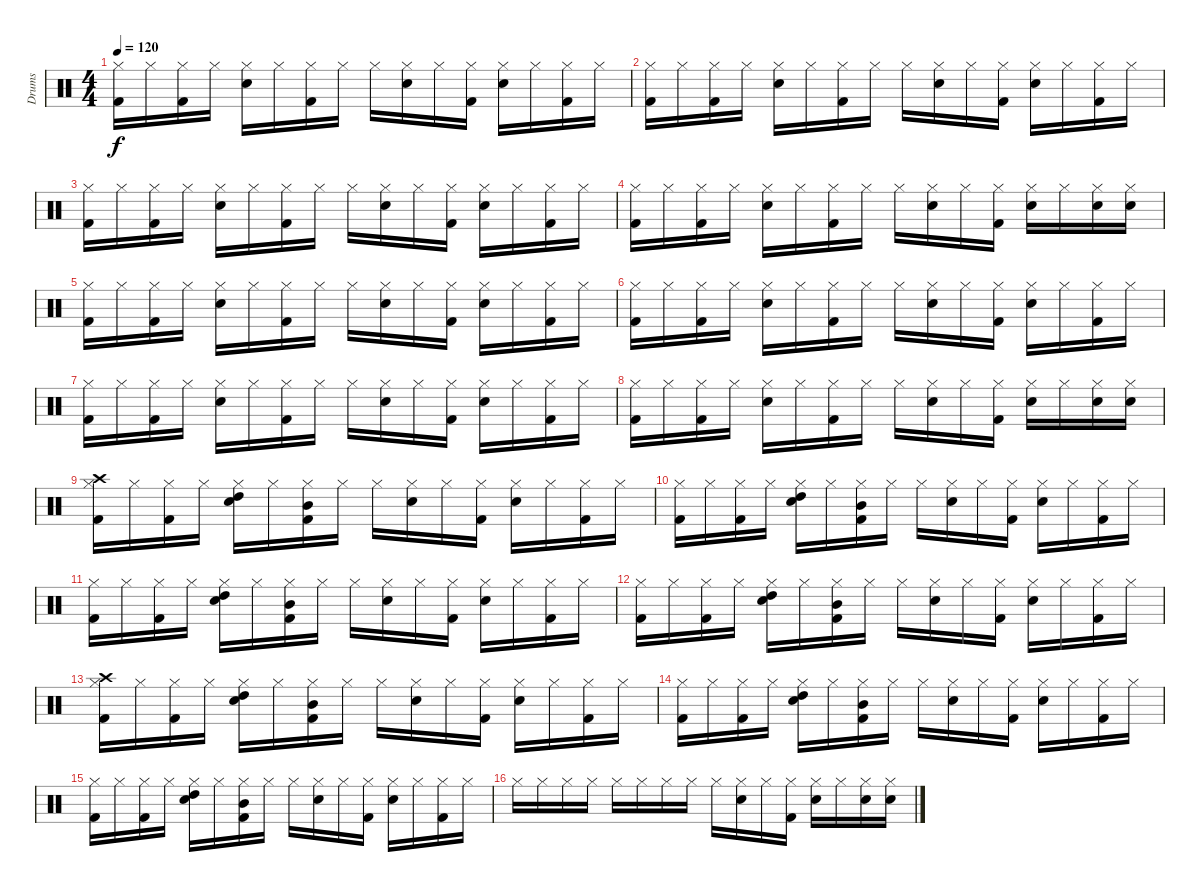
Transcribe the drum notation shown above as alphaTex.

\track ("Drums" "Drums") {instrument percussion}
\staff {score}
\articulation defaults
\ts (4 4)
\tempo 120
\clef neutral
\ks c
("Hi-Hat (closed)" "Kick (hit) 2").16{dy f} "Hi-Hat (closed)".16 ("Hi-Hat (closed)" "Kick (hit) 2").16 "Hi-Hat (closed)".16 ("Hi-Hat (closed)" "Electric Snare (hit)").16 "Hi-Hat (closed)".16 ("Hi-Hat (closed)" "Kick (hit) 2").16 "Hi-Hat (closed)".16 "Hi-Hat (closed)".16 ("Hi-Hat (closed)" "Electric Snare (hit)").16 "Hi-Hat (closed)".16 ("Hi-Hat (closed)" "Kick (hit) 2").16 ("Hi-Hat (closed)" "Electric Snare (hit)").16 "Hi-Hat (closed)".16 ("Hi-Hat (closed)" "Kick (hit) 2").16 "Hi-Hat (closed)".16 |
("Hi-Hat (closed)" "Kick (hit) 2").16 "Hi-Hat (closed)".16 ("Hi-Hat (closed)" "Kick (hit) 2").16 "Hi-Hat (closed)".16 ("Hi-Hat (closed)" "Electric Snare (hit)").16 "Hi-Hat (closed)".16 ("Hi-Hat (closed)" "Kick (hit) 2").16 "Hi-Hat (closed)".16 "Hi-Hat (closed)".16 ("Hi-Hat (closed)" "Electric Snare (hit)").16 "Hi-Hat (closed)".16 ("Hi-Hat (closed)" "Kick (hit) 2").16 ("Hi-Hat (closed)" "Electric Snare (hit)").16 "Hi-Hat (closed)".16 ("Hi-Hat (closed)" "Kick (hit) 2").16 "Hi-Hat (closed)".16 |
("Hi-Hat (closed)" "Kick (hit) 2").16 "Hi-Hat (closed)".16 ("Hi-Hat (closed)" "Kick (hit) 2").16 "Hi-Hat (closed)".16 ("Hi-Hat (closed)" "Electric Snare (hit)").16 "Hi-Hat (closed)".16 ("Hi-Hat (closed)" "Kick (hit) 2").16 "Hi-Hat (closed)".16 "Hi-Hat (closed)".16 ("Hi-Hat (closed)" "Electric Snare (hit)").16 "Hi-Hat (closed)".16 ("Hi-Hat (closed)" "Kick (hit) 2").16 ("Hi-Hat (closed)" "Electric Snare (hit)").16 "Hi-Hat (closed)".16 ("Hi-Hat (closed)" "Kick (hit) 2").16 "Hi-Hat (closed)".16 |
("Hi-Hat (closed)" "Kick (hit) 2").16 "Hi-Hat (closed)".16 ("Hi-Hat (closed)" "Kick (hit) 2").16 "Hi-Hat (closed)".16 ("Hi-Hat (closed)" "Electric Snare (hit)").16 "Hi-Hat (closed)".16 ("Hi-Hat (closed)" "Kick (hit) 2").16 "Hi-Hat (closed)".16 "Hi-Hat (closed)".16 ("Hi-Hat (closed)" "Electric Snare (hit)").16 "Hi-Hat (closed)".16 ("Hi-Hat (closed)" "Kick (hit) 2").16 ("Hi-Hat (closed)" "Electric Snare (hit)").16 "Hi-Hat (closed)".16 ("Hi-Hat (closed)" "Electric Snare (hit)").16 ("Hi-Hat (closed)" "Electric Snare (hit)").16 |
("Hi-Hat (closed)" "Kick (hit) 2").16 "Hi-Hat (closed)".16 ("Hi-Hat (closed)" "Kick (hit) 2").16 "Hi-Hat (closed)".16 ("Hi-Hat (closed)" "Electric Snare (hit)").16 "Hi-Hat (closed)".16 ("Hi-Hat (closed)" "Kick (hit) 2").16 "Hi-Hat (closed)".16 "Hi-Hat (closed)".16 ("Hi-Hat (closed)" "Electric Snare (hit)").16 "Hi-Hat (closed)".16 ("Hi-Hat (closed)" "Kick (hit) 2").16 ("Hi-Hat (closed)" "Electric Snare (hit)").16 "Hi-Hat (closed)".16 ("Hi-Hat (closed)" "Kick (hit) 2").16 "Hi-Hat (closed)".16 |
("Hi-Hat (closed)" "Kick (hit) 2").16 "Hi-Hat (closed)".16 ("Hi-Hat (closed)" "Kick (hit) 2").16 "Hi-Hat (closed)".16 ("Hi-Hat (closed)" "Electric Snare (hit)").16 "Hi-Hat (closed)".16 ("Hi-Hat (closed)" "Kick (hit) 2").16 "Hi-Hat (closed)".16 "Hi-Hat (closed)".16 ("Hi-Hat (closed)" "Electric Snare (hit)").16 "Hi-Hat (closed)".16 ("Hi-Hat (closed)" "Kick (hit) 2").16 ("Hi-Hat (closed)" "Electric Snare (hit)").16 "Hi-Hat (closed)".16 ("Hi-Hat (closed)" "Kick (hit) 2").16 "Hi-Hat (closed)".16 |
("Hi-Hat (closed)" "Kick (hit) 2").16 "Hi-Hat (closed)".16 ("Hi-Hat (closed)" "Kick (hit) 2").16 "Hi-Hat (closed)".16 ("Hi-Hat (closed)" "Electric Snare (hit)").16 "Hi-Hat (closed)".16 ("Hi-Hat (closed)" "Kick (hit) 2").16 "Hi-Hat (closed)".16 "Hi-Hat (closed)".16 ("Hi-Hat (closed)" "Electric Snare (hit)").16 "Hi-Hat (closed)".16 ("Hi-Hat (closed)" "Kick (hit) 2").16 ("Hi-Hat (closed)" "Electric Snare (hit)").16 "Hi-Hat (closed)".16 ("Hi-Hat (closed)" "Kick (hit) 2").16 "Hi-Hat (closed)".16 |
("Hi-Hat (closed)" "Kick (hit) 2").16 "Hi-Hat (closed)".16 ("Hi-Hat (closed)" "Kick (hit) 2").16 "Hi-Hat (closed)".16 ("Hi-Hat (closed)" "Electric Snare (hit)").16 "Hi-Hat (closed)".16 ("Hi-Hat (closed)" "Kick (hit) 2").16 "Hi-Hat (closed)".16 "Hi-Hat (closed)".16 ("Hi-Hat (closed)" "Electric Snare (hit)").16 "Hi-Hat (closed)".16 ("Hi-Hat (closed)" "Kick (hit) 2").16 ("Hi-Hat (closed)" "Electric Snare (hit)").16 "Hi-Hat (closed)".16 ("Hi-Hat (closed)" "Electric Snare (hit)").16 ("Hi-Hat (closed)" "Electric Snare (hit)").16 |
("Hi-Hat (closed)" "Crash high (hit)" "Kick (hit) 2").16 "Hi-Hat (closed)".16 ("Hi-Hat (closed)" "Kick (hit) 2").16 "Hi-Hat (closed)".16 ("Hi-Hat (closed)" "High Tom (hit)" "Electric Snare (hit)").16 "Hi-Hat (closed)".16 ("Hi-Hat (closed)" "Mid Tom (hit)" "Kick (hit) 2").16 "Hi-Hat (closed)".16 "Hi-Hat (closed)".16 ("Hi-Hat (closed)" "Electric Snare (hit)").16 "Hi-Hat (closed)".16 ("Hi-Hat (closed)" "Kick (hit) 2").16 ("Hi-Hat (closed)" "Electric Snare (hit)").16 "Hi-Hat (closed)".16 ("Hi-Hat (closed)" "Kick (hit) 2").16 "Hi-Hat (closed)".16 |
("Hi-Hat (closed)" "Kick (hit) 2").16 "Hi-Hat (closed)".16 ("Hi-Hat (closed)" "Kick (hit) 2").16 "Hi-Hat (closed)".16 ("Hi-Hat (closed)" "High Tom (hit)" "Electric Snare (hit)").16 "Hi-Hat (closed)".16 ("Hi-Hat (closed)" "Mid Tom (hit)" "Kick (hit) 2").16 "Hi-Hat (closed)".16 "Hi-Hat (closed)".16 ("Hi-Hat (closed)" "Electric Snare (hit)").16 "Hi-Hat (closed)".16 ("Hi-Hat (closed)" "Kick (hit) 2").16 ("Hi-Hat (closed)" "Electric Snare (hit)").16 "Hi-Hat (closed)".16 ("Hi-Hat (closed)" "Kick (hit) 2").16 "Hi-Hat (closed)".16 |
("Hi-Hat (closed)" "Kick (hit) 2").16 "Hi-Hat (closed)".16 ("Hi-Hat (closed)" "Kick (hit) 2").16 "Hi-Hat (closed)".16 ("Hi-Hat (closed)" "High Tom (hit)" "Electric Snare (hit)").16 "Hi-Hat (closed)".16 ("Hi-Hat (closed)" "Mid Tom (hit)" "Kick (hit) 2").16 "Hi-Hat (closed)".16 "Hi-Hat (closed)".16 ("Hi-Hat (closed)" "Electric Snare (hit)").16 "Hi-Hat (closed)".16 ("Hi-Hat (closed)" "Kick (hit) 2").16 ("Hi-Hat (closed)" "Electric Snare (hit)").16 "Hi-Hat (closed)".16 ("Hi-Hat (closed)" "Kick (hit) 2").16 "Hi-Hat (closed)".16 |
("Hi-Hat (closed)" "Kick (hit) 2").16 "Hi-Hat (closed)".16 ("Hi-Hat (closed)" "Kick (hit) 2").16 "Hi-Hat (closed)".16 ("Hi-Hat (closed)" "High Tom (hit)" "Electric Snare (hit)").16 "Hi-Hat (closed)".16 ("Hi-Hat (closed)" "Mid Tom (hit)" "Kick (hit) 2").16 "Hi-Hat (closed)".16 "Hi-Hat (closed)".16 ("Hi-Hat (closed)" "Electric Snare (hit)").16 "Hi-Hat (closed)".16 ("Hi-Hat (closed)" "Kick (hit) 2").16 ("Hi-Hat (closed)" "Electric Snare (hit)").16 "Hi-Hat (closed)".16 ("Hi-Hat (closed)" "Kick (hit) 2").16 "Hi-Hat (closed)".16 |
("Hi-Hat (closed)" "Crash high (hit)" "Kick (hit) 2").16 "Hi-Hat (closed)".16 ("Hi-Hat (closed)" "Kick (hit) 2").16 "Hi-Hat (closed)".16 ("Hi-Hat (closed)" "High Tom (hit)" "Electric Snare (hit)").16 "Hi-Hat (closed)".16 ("Hi-Hat (closed)" "Mid Tom (hit)" "Kick (hit) 2").16 "Hi-Hat (closed)".16 "Hi-Hat (closed)".16 ("Hi-Hat (closed)" "Electric Snare (hit)").16 "Hi-Hat (closed)".16 ("Hi-Hat (closed)" "Kick (hit) 2").16 ("Hi-Hat (closed)" "Electric Snare (hit)").16 "Hi-Hat (closed)".16 ("Hi-Hat (closed)" "Kick (hit) 2").16 "Hi-Hat (closed)".16 |
("Hi-Hat (closed)" "Kick (hit) 2").16 "Hi-Hat (closed)".16 ("Hi-Hat (closed)" "Kick (hit) 2").16 "Hi-Hat (closed)".16 ("Hi-Hat (closed)" "High Tom (hit)" "Electric Snare (hit)").16 "Hi-Hat (closed)".16 ("Hi-Hat (closed)" "Mid Tom (hit)" "Kick (hit) 2").16 "Hi-Hat (closed)".16 "Hi-Hat (closed)".16 ("Hi-Hat (closed)" "Electric Snare (hit)").16 "Hi-Hat (closed)".16 ("Hi-Hat (closed)" "Kick (hit) 2").16 ("Hi-Hat (closed)" "Electric Snare (hit)").16 "Hi-Hat (closed)".16 ("Hi-Hat (closed)" "Kick (hit) 2").16 "Hi-Hat (closed)".16 |
("Hi-Hat (closed)" "Kick (hit) 2").16 "Hi-Hat (closed)".16 ("Hi-Hat (closed)" "Kick (hit) 2").16 "Hi-Hat (closed)".16 ("Hi-Hat (closed)" "High Tom (hit)" "Electric Snare (hit)").16 "Hi-Hat (closed)".16 ("Hi-Hat (closed)" "Mid Tom (hit)" "Kick (hit) 2").16 "Hi-Hat (closed)".16 "Hi-Hat (closed)".16 ("Hi-Hat (closed)" "Electric Snare (hit)").16 "Hi-Hat (closed)".16 ("Hi-Hat (closed)" "Kick (hit) 2").16 ("Hi-Hat (closed)" "Electric Snare (hit)").16 "Hi-Hat (closed)".16 ("Hi-Hat (closed)" "Kick (hit) 2").16 "Hi-Hat (closed)".16 |
"Hi-Hat (closed)".16 "Hi-Hat (closed)".16 "Hi-Hat (closed)".16 "Hi-Hat (closed)".16 "Hi-Hat (closed)".16 "Hi-Hat (closed)".16 "Hi-Hat (closed)".16 "Hi-Hat (closed)".16 "Hi-Hat (closed)".16 ("Hi-Hat (closed)" "Electric Snare (hit)").16 "Hi-Hat (closed)".16 ("Hi-Hat (closed)" "Kick (hit) 2").16 ("Hi-Hat (closed)" "Electric Snare (hit)").16 "Hi-Hat (closed)".16 ("Hi-Hat (closed)" "Electric Snare (hit)").16 ("Hi-Hat (closed)" "Electric Snare (hit)").16
